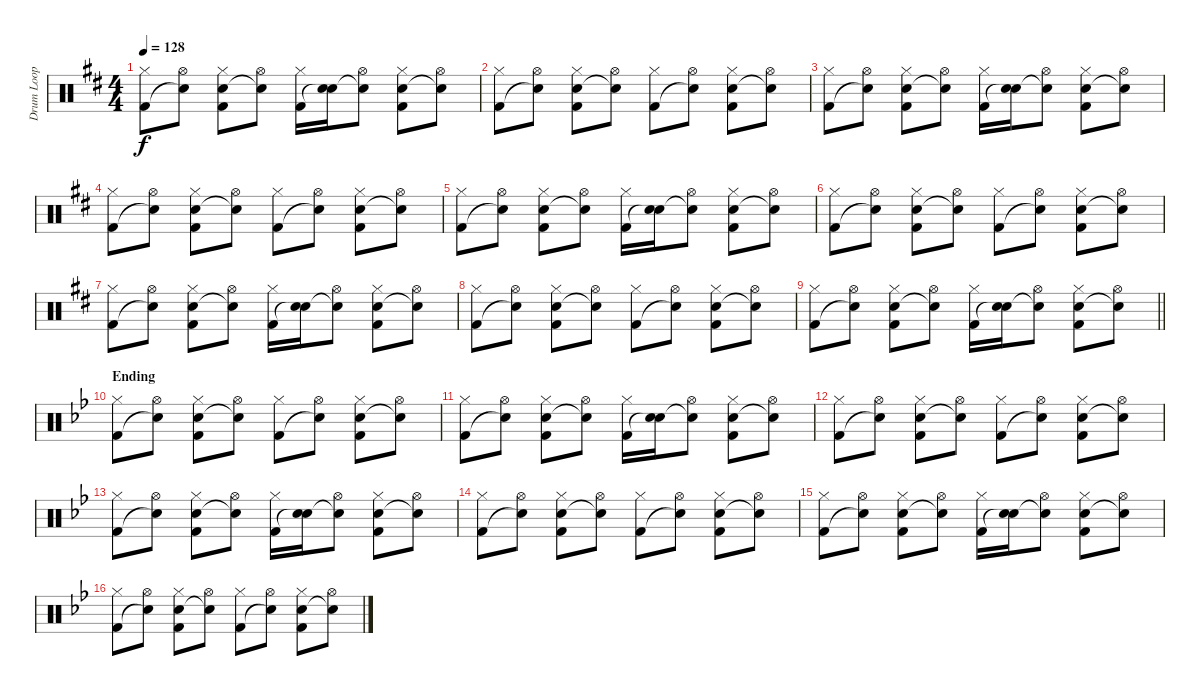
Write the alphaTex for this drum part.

\track ("Drum Loop" "Drum Loop") {instrument percussion}
\staff {score}
\articulation defaults
\ts (4 4)
\tempo 128
\clef neutral
\ks d
("Hi-Hat (closed)" "Kick (hit) 2").8{dy f} ("Hi-Hat (open)" "Snare (hit)"{t}).8 ("Hi-Hat (closed)" "Electric Snare (hit)" "Kick (hit) 2").8 ("Hi-Hat (open)" "Snare (hit)"{t}).8 ("Hi-Hat (closed)" "Kick (hit) 2").16 ("Electric Snare (hit)" "Snare (hit)"{t}).16 ("Hi-Hat (open)" "Snare (hit)"{t}).8 ("Hi-Hat (closed)" "Electric Snare (hit)" "Kick (hit) 2").8 ("Hi-Hat (open)" "Snare (hit)"{t}).8 |
("Hi-Hat (closed)" "Kick (hit) 2").8 ("Hi-Hat (open)" "Snare (hit)"{t}).8 ("Hi-Hat (closed)" "Electric Snare (hit)" "Kick (hit) 2").8 ("Hi-Hat (open)" "Snare (hit)"{t}).8 ("Hi-Hat (closed)" "Kick (hit) 2").8 ("Hi-Hat (open)" "Snare (hit)"{t}).8 ("Hi-Hat (closed)" "Electric Snare (hit)" "Kick (hit) 2").8 ("Hi-Hat (open)" "Snare (hit)"{t}).8 |
("Hi-Hat (closed)" "Kick (hit) 2").8 ("Hi-Hat (open)" "Snare (hit)"{t}).8 ("Hi-Hat (closed)" "Electric Snare (hit)" "Kick (hit) 2").8 ("Hi-Hat (open)" "Snare (hit)"{t}).8 ("Hi-Hat (closed)" "Kick (hit) 2").16 ("Electric Snare (hit)" "Snare (hit)"{t}).16 ("Hi-Hat (open)" "Snare (hit)"{t}).8 ("Hi-Hat (closed)" "Electric Snare (hit)" "Kick (hit) 2").8 ("Hi-Hat (open)" "Snare (hit)"{t}).8 |
("Hi-Hat (closed)" "Kick (hit) 2").8 ("Hi-Hat (open)" "Snare (hit)"{t}).8 ("Hi-Hat (closed)" "Electric Snare (hit)" "Kick (hit) 2").8 ("Hi-Hat (open)" "Snare (hit)"{t}).8 ("Hi-Hat (closed)" "Kick (hit) 2").8 ("Hi-Hat (open)" "Snare (hit)"{t}).8 ("Hi-Hat (closed)" "Electric Snare (hit)" "Kick (hit) 2").8 ("Hi-Hat (open)" "Snare (hit)"{t}).8 |
("Hi-Hat (closed)" "Kick (hit) 2").8 ("Hi-Hat (open)" "Snare (hit)"{t}).8 ("Hi-Hat (closed)" "Electric Snare (hit)" "Kick (hit) 2").8 ("Hi-Hat (open)" "Snare (hit)"{t}).8 ("Hi-Hat (closed)" "Kick (hit) 2").16 ("Electric Snare (hit)" "Snare (hit)"{t}).16 ("Hi-Hat (open)" "Snare (hit)"{t}).8 ("Hi-Hat (closed)" "Electric Snare (hit)" "Kick (hit) 2").8 ("Hi-Hat (open)" "Snare (hit)"{t}).8 |
("Hi-Hat (closed)" "Kick (hit) 2").8 ("Hi-Hat (open)" "Snare (hit)"{t}).8 ("Hi-Hat (closed)" "Electric Snare (hit)" "Kick (hit) 2").8 ("Hi-Hat (open)" "Snare (hit)"{t}).8 ("Hi-Hat (closed)" "Kick (hit) 2").8 ("Hi-Hat (open)" "Snare (hit)"{t}).8 ("Hi-Hat (closed)" "Electric Snare (hit)" "Kick (hit) 2").8 ("Hi-Hat (open)" "Snare (hit)"{t}).8 |
("Hi-Hat (closed)" "Kick (hit) 2").8 ("Hi-Hat (open)" "Snare (hit)"{t}).8 ("Hi-Hat (closed)" "Electric Snare (hit)" "Kick (hit) 2").8 ("Hi-Hat (open)" "Snare (hit)"{t}).8 ("Hi-Hat (closed)" "Kick (hit) 2").16 ("Electric Snare (hit)" "Snare (hit)"{t}).16 ("Hi-Hat (open)" "Snare (hit)"{t}).8 ("Hi-Hat (closed)" "Electric Snare (hit)" "Kick (hit) 2").8 ("Hi-Hat (open)" "Snare (hit)"{t}).8 |
("Hi-Hat (closed)" "Kick (hit) 2").8 ("Hi-Hat (open)" "Snare (hit)"{t}).8 ("Hi-Hat (closed)" "Electric Snare (hit)" "Kick (hit) 2").8 ("Hi-Hat (open)" "Snare (hit)"{t}).8 ("Hi-Hat (closed)" "Kick (hit) 2").8 ("Hi-Hat (open)" "Snare (hit)"{t}).8 ("Hi-Hat (closed)" "Electric Snare (hit)" "Kick (hit) 2").8 ("Hi-Hat (open)" "Snare (hit)"{t}).8 |
\barLineRight lightlight
("Hi-Hat (closed)" "Kick (hit) 2").8 ("Hi-Hat (open)" "Snare (hit)"{t}).8 ("Hi-Hat (closed)" "Electric Snare (hit)" "Kick (hit) 2").8 ("Hi-Hat (open)" "Snare (hit)"{t}).8 ("Hi-Hat (closed)" "Kick (hit) 2").16 ("Electric Snare (hit)" "Snare (hit)"{t}).16 ("Hi-Hat (open)" "Snare (hit)"{t}).8 ("Hi-Hat (closed)" "Electric Snare (hit)" "Kick (hit) 2").8 ("Hi-Hat (open)" "Snare (hit)"{t}).8 |
\section ("" "Ending")
\ks gminor
("Hi-Hat (closed)" "Kick (hit) 2").8 ("Hi-Hat (open)" "Snare (hit)"{t}).8 ("Hi-Hat (closed)" "Electric Snare (hit)" "Kick (hit) 2").8 ("Hi-Hat (open)" "Snare (hit)"{t}).8 ("Hi-Hat (closed)" "Kick (hit) 2").8 ("Hi-Hat (open)" "Snare (hit)"{t}).8 ("Hi-Hat (closed)" "Electric Snare (hit)" "Kick (hit) 2").8 ("Hi-Hat (open)" "Snare (hit)"{t}).8 |
("Hi-Hat (closed)" "Kick (hit) 2").8 ("Hi-Hat (open)" "Snare (hit)"{t}).8 ("Hi-Hat (closed)" "Electric Snare (hit)" "Kick (hit) 2").8 ("Hi-Hat (open)" "Snare (hit)"{t}).8 ("Hi-Hat (closed)" "Kick (hit) 2").16 ("Electric Snare (hit)" "Snare (hit)"{t}).16 ("Hi-Hat (open)" "Snare (hit)"{t}).8 ("Hi-Hat (closed)" "Electric Snare (hit)" "Kick (hit) 2").8 ("Hi-Hat (open)" "Snare (hit)"{t}).8 |
("Hi-Hat (closed)" "Kick (hit) 2").8 ("Hi-Hat (open)" "Snare (hit)"{t}).8 ("Hi-Hat (closed)" "Electric Snare (hit)" "Kick (hit) 2").8 ("Hi-Hat (open)" "Snare (hit)"{t}).8 ("Hi-Hat (closed)" "Kick (hit) 2").8 ("Hi-Hat (open)" "Snare (hit)"{t}).8 ("Hi-Hat (closed)" "Electric Snare (hit)" "Kick (hit) 2").8 ("Hi-Hat (open)" "Snare (hit)"{t}).8 |
("Hi-Hat (closed)" "Kick (hit) 2").8 ("Hi-Hat (open)" "Snare (hit)"{t}).8 ("Hi-Hat (closed)" "Electric Snare (hit)" "Kick (hit) 2").8 ("Hi-Hat (open)" "Snare (hit)"{t}).8 ("Hi-Hat (closed)" "Kick (hit) 2").16 ("Electric Snare (hit)" "Snare (hit)"{t}).16 ("Hi-Hat (open)" "Snare (hit)"{t}).8 ("Hi-Hat (closed)" "Electric Snare (hit)" "Kick (hit) 2").8 ("Hi-Hat (open)" "Snare (hit)"{t}).8 |
("Hi-Hat (closed)" "Kick (hit) 2").8 ("Hi-Hat (open)" "Snare (hit)"{t}).8 ("Hi-Hat (closed)" "Electric Snare (hit)" "Kick (hit) 2").8 ("Hi-Hat (open)" "Snare (hit)"{t}).8 ("Hi-Hat (closed)" "Kick (hit) 2").8 ("Hi-Hat (open)" "Snare (hit)"{t}).8 ("Hi-Hat (closed)" "Electric Snare (hit)" "Kick (hit) 2").8 ("Hi-Hat (open)" "Snare (hit)"{t}).8 |
("Hi-Hat (closed)" "Kick (hit) 2").8 ("Hi-Hat (open)" "Snare (hit)"{t}).8 ("Hi-Hat (closed)" "Electric Snare (hit)" "Kick (hit) 2").8 ("Hi-Hat (open)" "Snare (hit)"{t}).8 ("Hi-Hat (closed)" "Kick (hit) 2").16 ("Electric Snare (hit)" "Snare (hit)"{t}).16 ("Hi-Hat (open)" "Snare (hit)"{t}).8 ("Hi-Hat (closed)" "Electric Snare (hit)" "Kick (hit) 2").8 ("Hi-Hat (open)" "Snare (hit)"{t}).8 |
("Hi-Hat (closed)" "Kick (hit) 2").8 ("Hi-Hat (open)" "Snare (hit)"{t}).8 ("Hi-Hat (closed)" "Electric Snare (hit)" "Kick (hit) 2").8 ("Hi-Hat (open)" "Snare (hit)"{t}).8 ("Hi-Hat (closed)" "Kick (hit) 2").8 ("Hi-Hat (open)" "Snare (hit)"{t}).8 ("Hi-Hat (closed)" "Electric Snare (hit)" "Kick (hit) 2").8 ("Hi-Hat (open)" "Snare (hit)"{t}).8
